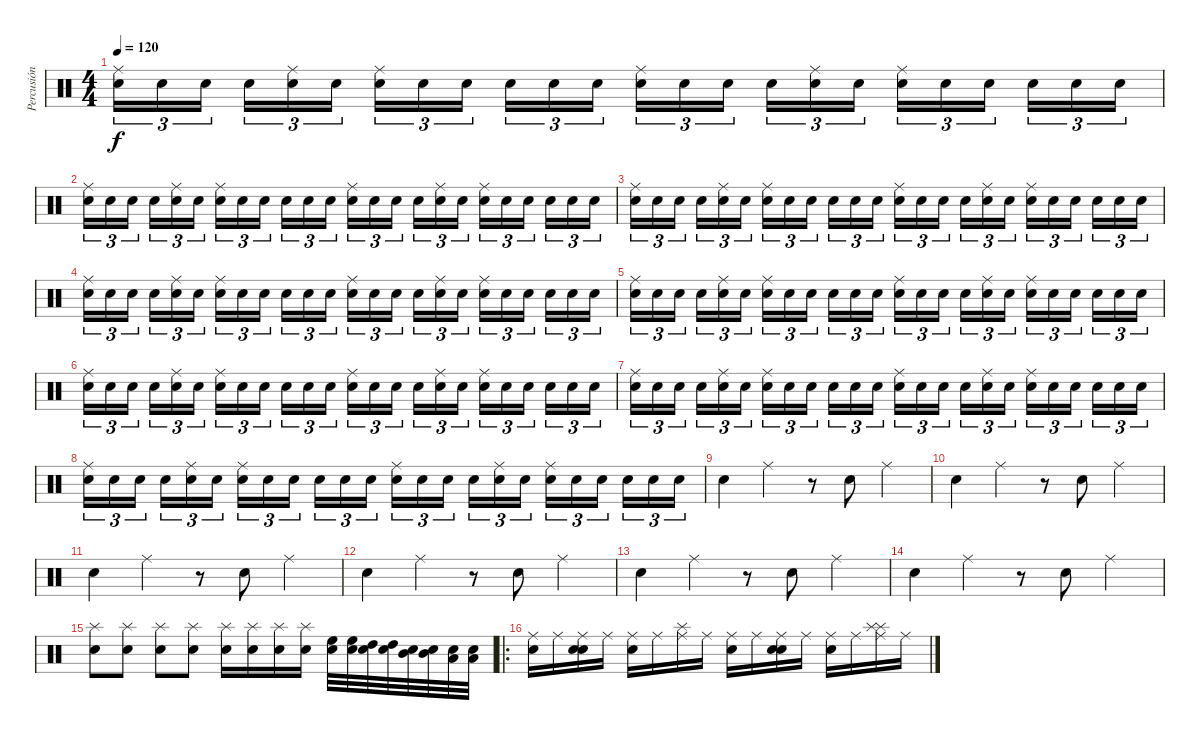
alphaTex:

\track ("Percusión" "Percusión") {instrument percussion}
\staff {score}
\articulation defaults
\ts (4 4)
\tempo 120
\clef neutral
\ks c
("Ride (middle)" "Snare (hit)").16{tu (3 2) dy f} "Snare (hit)".16{tu (3 2)} "Snare (hit)".16{tu (3 2)} "Snare (hit)".16{tu (3 2)} ("Ride (middle)" "Snare (hit)").16{tu (3 2)} "Snare (hit)".16{tu (3 2)} ("Ride (middle)" "Snare (hit)").16{tu (3 2)} "Snare (hit)".16{tu (3 2)} "Snare (hit)".16{tu (3 2)} "Snare (hit)".16{tu (3 2)} "Snare (hit)".16{tu (3 2)} "Snare (hit)".16{tu (3 2)} ("Ride (middle)" "Snare (hit)").16{tu (3 2)} "Snare (hit)".16{tu (3 2)} "Snare (hit)".16{tu (3 2)} "Snare (hit)".16{tu (3 2)} ("Ride (middle)" "Snare (hit)").16{tu (3 2)} "Snare (hit)".16{tu (3 2)} ("Ride (middle)" "Snare (hit)").16{tu (3 2)} "Snare (hit)".16{tu (3 2)} "Snare (hit)".16{tu (3 2)} "Snare (hit)".16{tu (3 2)} "Snare (hit)".16{tu (3 2)} "Snare (hit)".16{tu (3 2)} |
("Ride (middle)" "Snare (hit)").16{tu (3 2)} "Snare (hit)".16{tu (3 2)} "Snare (hit)".16{tu (3 2)} "Snare (hit)".16{tu (3 2)} ("Ride (middle)" "Snare (hit)").16{tu (3 2)} "Snare (hit)".16{tu (3 2)} ("Ride (middle)" "Snare (hit)").16{tu (3 2)} "Snare (hit)".16{tu (3 2)} "Snare (hit)".16{tu (3 2)} "Snare (hit)".16{tu (3 2)} "Snare (hit)".16{tu (3 2)} "Snare (hit)".16{tu (3 2)} ("Ride (middle)" "Snare (hit)").16{tu (3 2)} "Snare (hit)".16{tu (3 2)} "Snare (hit)".16{tu (3 2)} "Snare (hit)".16{tu (3 2)} ("Ride (middle)" "Snare (hit)").16{tu (3 2)} "Snare (hit)".16{tu (3 2)} ("Ride (middle)" "Snare (hit)").16{tu (3 2)} "Snare (hit)".16{tu (3 2)} "Snare (hit)".16{tu (3 2)} "Snare (hit)".16{tu (3 2)} "Snare (hit)".16{tu (3 2)} "Snare (hit)".16{tu (3 2)} |
("Ride (middle)" "Snare (hit)").16{tu (3 2)} "Snare (hit)".16{tu (3 2)} "Snare (hit)".16{tu (3 2)} "Snare (hit)".16{tu (3 2)} ("Ride (middle)" "Snare (hit)").16{tu (3 2)} "Snare (hit)".16{tu (3 2)} ("Ride (middle)" "Snare (hit)").16{tu (3 2)} "Snare (hit)".16{tu (3 2)} "Snare (hit)".16{tu (3 2)} "Snare (hit)".16{tu (3 2)} "Snare (hit)".16{tu (3 2)} "Snare (hit)".16{tu (3 2)} ("Ride (middle)" "Snare (hit)").16{tu (3 2)} "Snare (hit)".16{tu (3 2)} "Snare (hit)".16{tu (3 2)} "Snare (hit)".16{tu (3 2)} ("Ride (middle)" "Snare (hit)").16{tu (3 2)} "Snare (hit)".16{tu (3 2)} ("Ride (middle)" "Snare (hit)").16{tu (3 2)} "Snare (hit)".16{tu (3 2)} "Snare (hit)".16{tu (3 2)} "Snare (hit)".16{tu (3 2)} "Snare (hit)".16{tu (3 2)} "Snare (hit)".16{tu (3 2)} |
("Ride (middle)" "Snare (hit)").16{tu (3 2)} "Snare (hit)".16{tu (3 2)} "Snare (hit)".16{tu (3 2)} "Snare (hit)".16{tu (3 2)} ("Ride (middle)" "Snare (hit)").16{tu (3 2)} "Snare (hit)".16{tu (3 2)} ("Ride (middle)" "Snare (hit)").16{tu (3 2)} "Snare (hit)".16{tu (3 2)} "Snare (hit)".16{tu (3 2)} "Snare (hit)".16{tu (3 2)} "Snare (hit)".16{tu (3 2)} "Snare (hit)".16{tu (3 2)} ("Ride (middle)" "Snare (hit)").16{tu (3 2)} "Snare (hit)".16{tu (3 2)} "Snare (hit)".16{tu (3 2)} "Snare (hit)".16{tu (3 2)} ("Ride (middle)" "Snare (hit)").16{tu (3 2)} "Snare (hit)".16{tu (3 2)} ("Ride (middle)" "Snare (hit)").16{tu (3 2)} "Snare (hit)".16{tu (3 2)} "Snare (hit)".16{tu (3 2)} "Snare (hit)".16{tu (3 2)} "Snare (hit)".16{tu (3 2)} "Snare (hit)".16{tu (3 2)} |
("Ride (middle)" "Snare (hit)").16{tu (3 2)} "Snare (hit)".16{tu (3 2)} "Snare (hit)".16{tu (3 2)} "Snare (hit)".16{tu (3 2)} ("Ride (middle)" "Snare (hit)").16{tu (3 2)} "Snare (hit)".16{tu (3 2)} ("Ride (middle)" "Snare (hit)").16{tu (3 2)} "Snare (hit)".16{tu (3 2)} "Snare (hit)".16{tu (3 2)} "Snare (hit)".16{tu (3 2)} "Snare (hit)".16{tu (3 2)} "Snare (hit)".16{tu (3 2)} ("Ride (middle)" "Snare (hit)").16{tu (3 2)} "Snare (hit)".16{tu (3 2)} "Snare (hit)".16{tu (3 2)} "Snare (hit)".16{tu (3 2)} ("Ride (middle)" "Snare (hit)").16{tu (3 2)} "Snare (hit)".16{tu (3 2)} ("Ride (middle)" "Snare (hit)").16{tu (3 2)} "Snare (hit)".16{tu (3 2)} "Snare (hit)".16{tu (3 2)} "Snare (hit)".16{tu (3 2)} "Snare (hit)".16{tu (3 2)} "Snare (hit)".16{tu (3 2)} |
("Ride (middle)" "Snare (hit)").16{tu (3 2)} "Snare (hit)".16{tu (3 2)} "Snare (hit)".16{tu (3 2)} "Snare (hit)".16{tu (3 2)} ("Ride (middle)" "Snare (hit)").16{tu (3 2)} "Snare (hit)".16{tu (3 2)} ("Ride (middle)" "Snare (hit)").16{tu (3 2)} "Snare (hit)".16{tu (3 2)} "Snare (hit)".16{tu (3 2)} "Snare (hit)".16{tu (3 2)} "Snare (hit)".16{tu (3 2)} "Snare (hit)".16{tu (3 2)} ("Ride (middle)" "Snare (hit)").16{tu (3 2)} "Snare (hit)".16{tu (3 2)} "Snare (hit)".16{tu (3 2)} "Snare (hit)".16{tu (3 2)} ("Ride (middle)" "Snare (hit)").16{tu (3 2)} "Snare (hit)".16{tu (3 2)} ("Ride (middle)" "Snare (hit)").16{tu (3 2)} "Snare (hit)".16{tu (3 2)} "Snare (hit)".16{tu (3 2)} "Snare (hit)".16{tu (3 2)} "Snare (hit)".16{tu (3 2)} "Snare (hit)".16{tu (3 2)} |
("Ride (middle)" "Snare (hit)").16{tu (3 2)} "Snare (hit)".16{tu (3 2)} "Snare (hit)".16{tu (3 2)} "Snare (hit)".16{tu (3 2)} ("Ride (middle)" "Snare (hit)").16{tu (3 2)} "Snare (hit)".16{tu (3 2)} ("Ride (middle)" "Snare (hit)").16{tu (3 2)} "Snare (hit)".16{tu (3 2)} "Snare (hit)".16{tu (3 2)} "Snare (hit)".16{tu (3 2)} "Snare (hit)".16{tu (3 2)} "Snare (hit)".16{tu (3 2)} ("Ride (middle)" "Snare (hit)").16{tu (3 2)} "Snare (hit)".16{tu (3 2)} "Snare (hit)".16{tu (3 2)} "Snare (hit)".16{tu (3 2)} ("Ride (middle)" "Snare (hit)").16{tu (3 2)} "Snare (hit)".16{tu (3 2)} ("Ride (middle)" "Snare (hit)").16{tu (3 2)} "Snare (hit)".16{tu (3 2)} "Snare (hit)".16{tu (3 2)} "Snare (hit)".16{tu (3 2)} "Snare (hit)".16{tu (3 2)} "Snare (hit)".16{tu (3 2)} |
("Ride (middle)" "Snare (hit)").16{tu (3 2)} "Snare (hit)".16{tu (3 2)} "Snare (hit)".16{tu (3 2)} "Snare (hit)".16{tu (3 2)} ("Ride (middle)" "Snare (hit)").16{tu (3 2)} "Snare (hit)".16{tu (3 2)} ("Ride (middle)" "Snare (hit)").16{tu (3 2)} "Snare (hit)".16{tu (3 2)} "Snare (hit)".16{tu (3 2)} "Snare (hit)".16{tu (3 2)} "Snare (hit)".16{tu (3 2)} "Snare (hit)".16{tu (3 2)} ("Ride (middle)" "Snare (hit)").16{tu (3 2)} "Snare (hit)".16{tu (3 2)} "Snare (hit)".16{tu (3 2)} "Snare (hit)".16{tu (3 2)} ("Ride (middle)" "Snare (hit)").16{tu (3 2)} "Snare (hit)".16{tu (3 2)} ("Ride (middle)" "Snare (hit)").16{tu (3 2)} "Snare (hit)".16{tu (3 2)} "Snare (hit)".16{tu (3 2)} "Snare (hit)".16{tu (3 2)} "Snare (hit)".16{tu (3 2)} "Snare (hit)".16{tu (3 2)} |
"Electric Snare (hit)".4 "Ride (middle)".4 r.8 "Electric Snare (hit)".8 "Ride (middle)".4 |
"Electric Snare (hit)".4 "Ride (middle)".4 r.8 "Electric Snare (hit)".8 "Ride (middle)".4 |
"Electric Snare (hit)".4 "Ride (middle)".4 r.8 "Electric Snare (hit)".8 "Ride (middle)".4 |
"Electric Snare (hit)".4 "Ride (middle)".4 r.8 "Electric Snare (hit)".8 "Ride (middle)".4 |
"Electric Snare (hit)".4 "Ride (middle)".4 r.8 "Electric Snare (hit)".8 "Ride (middle)".4 |
"Electric Snare (hit)".4 "Ride (middle)".4 r.8 "Electric Snare (hit)".8 "Ride (middle)".4 |
("Splash (hit)" "Snare (hit) 2").8 ("Splash (hit)" "Snare (hit) 2").8 ("Splash (hit)" "Snare (hit) 2").8 ("Splash (hit)" "Snare (hit) 2").8 ("Splash (hit)" "Snare (hit) 2").16 ("Splash (hit)" "Snare (hit) 2").16 ("Splash (hit)" "Snare (hit) 2").16 ("Splash (hit)" "Snare (hit) 2").16 ("Snare (hit) 2" "High Floor Tom (hit)").32 ("Snare (hit) 2" "High Floor Tom (hit)").32 ("Snare (hit) 2" "High Tom (hit)").32 ("Snare (hit) 2" "High Tom (hit)").32 ("Snare (hit) 2" "Mid Tom (hit)").32 ("Snare (hit) 2" "Mid Tom (hit)").32 ("Snare (hit) 2" "Low Tom (hit)").32 ("Snare (hit) 2" "Low Tom (hit)").32 |
\ro
("Electric Snare (hit)" "Ride (middle)").16 "Ride (middle)".16 ("Snare (hit)" "Snare (hit)" "Ride (middle)").16 "Ride (middle)".16 ("Electric Snare (hit)" "Ride (middle)").16 "Ride (middle)".16 ("Splash (hit)" "Ride (middle)").16 "Ride (middle)".16 ("Electric Snare (hit)" "Ride (middle)").16 "Ride (middle)".16 ("Snare (hit)" "Snare (hit)" "Ride (middle)").16 "Ride (middle)".16 ("Electric Snare (hit)" "Ride (middle)").16 "Ride (middle)".16 ("Splash (hit)" "Splash (hit)" "Ride (middle)").16 "Ride (middle)".16
